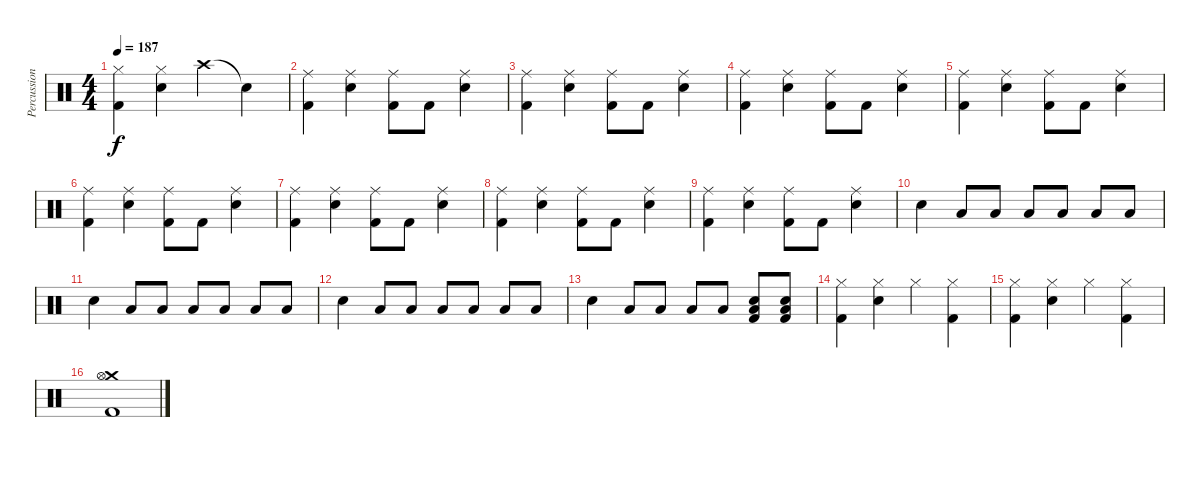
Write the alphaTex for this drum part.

\track ("Percussion" "Percussion") {instrument percussion}
\staff {score}
\articulation defaults
\ts (4 4)
\tempo 187
\clef neutral
\ks c
("Kick (hit) 2" "Hi-Hat (closed)").4{dy f} ("Snare (hit) 2" "Hi-Hat (closed)").4 "Crash high (hit)".4 "Snare (hit)"{t}.4 |
("Kick (hit) 2" "Ride (middle)").4 ("Snare (hit) 2" "Ride (middle)").4 ("Kick (hit) 2" "Ride (middle)").8 "Kick (hit) 2".8 ("Snare (hit) 2" "Ride (middle)").4 |
("Kick (hit) 2" "Ride (middle)").4 ("Snare (hit) 2" "Ride (middle)").4 ("Kick (hit) 2" "Ride (middle)").8 "Kick (hit) 2".8 ("Snare (hit) 2" "Ride (middle)").4 |
("Kick (hit) 2" "Ride (middle)").4 ("Snare (hit) 2" "Ride (middle)").4 ("Kick (hit) 2" "Ride (middle)").8 "Kick (hit) 2".8 ("Snare (hit) 2" "Ride (middle)").4 |
("Kick (hit) 2" "Ride (middle)").4 ("Snare (hit) 2" "Ride (middle)").4 ("Kick (hit) 2" "Ride (middle)").8 "Kick (hit) 2".8 ("Snare (hit) 2" "Ride (middle)").4 |
("Kick (hit) 2" "Ride (middle)").4 ("Snare (hit) 2" "Ride (middle)").4 ("Kick (hit) 2" "Ride (middle)").8 "Kick (hit) 2".8 ("Snare (hit) 2" "Ride (middle)").4 |
("Kick (hit) 2" "Ride (middle)").4 ("Snare (hit) 2" "Ride (middle)").4 ("Kick (hit) 2" "Ride (middle)").8 "Kick (hit) 2".8 ("Snare (hit) 2" "Ride (middle)").4 |
("Kick (hit) 2" "Ride (middle)").4 ("Snare (hit) 2" "Ride (middle)").4 ("Kick (hit) 2" "Ride (middle)").8 "Kick (hit) 2".8 ("Snare (hit) 2" "Ride (middle)").4 |
("Kick (hit) 2" "Ride (middle)").4 ("Snare (hit) 2" "Ride (middle)").4 ("Kick (hit) 2" "Ride (middle)").8 "Kick (hit) 2".8 ("Snare (hit) 2" "Ride (middle)").4 |
"Snare (hit) 2".4 "Low Tom (hit)".8 "Low Tom (hit)".8 "Low Tom (hit)".8 "Low Floor Tom (hit)".8 "Low Floor Tom (hit)".8 "Low Floor Tom (hit)".8 |
"Snare (hit) 2".4 "Low Tom (hit)".8 "Low Tom (hit)".8 "Low Tom (hit)".8 "Low Floor Tom (hit)".8 "Low Floor Tom (hit)".8 "Low Floor Tom (hit)".8 |
"Snare (hit) 2".4 "Low Tom (hit)".8 "Low Tom (hit)".8 "Low Tom (hit)".8 "Low Floor Tom (hit)".8 "Low Floor Tom (hit)".8 "Low Floor Tom (hit)".8 |
"Snare (hit) 2".4 "Low Tom (hit)".8 "Low Tom (hit)".8 "Low Tom (hit)".8 "Low Floor Tom (hit)".8 ("Snare (hit) 2" "Kick (hit) 2" "Low Floor Tom (hit)").8 ("Kick (hit) 2" "Snare (hit) 2" "Low Floor Tom (hit)").8 |
("Kick (hit) 2" "Hi-Hat (closed)").4 ("Snare (hit) 2" "Hi-Hat (closed)").4 "Hi-Hat (closed)".4 ("Kick (hit) 2" "Hi-Hat (closed)").4 |
("Kick (hit) 2" "Hi-Hat (closed)").4 ("Snare (hit) 2" "Hi-Hat (closed)").4 "Hi-Hat (closed)".4 ("Kick (hit) 2" "Hi-Hat (closed)").4 |
("Crash medium (hit)" "Hi-Hat (open)" "Kick (hit) 2").1
